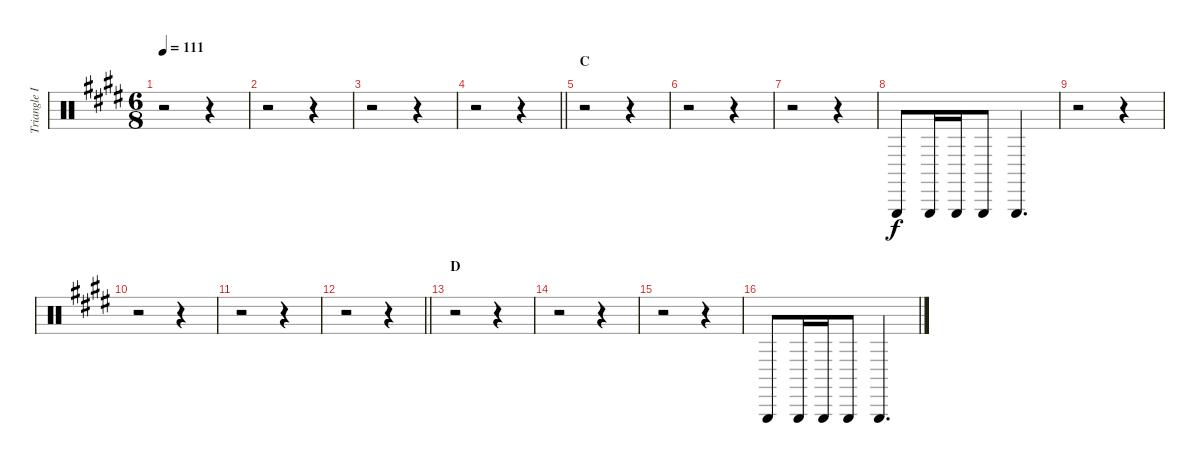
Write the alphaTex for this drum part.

\track ("Triangle I" "Triangle I") {instrument percussion}
\staff {score}
\articulation defaults
\ts (6 8)
\tempo 111
\clef neutral
\ks e
r.2{dy f} r.4 |
r.2 r.4 |
r.2 r.4 |
\barLineRight lightlight
r.2 r.4 |
\section ("" "C")
r.2 r.4 |
r.2 r.4 |
r.2 r.4 |
"Triangle (hit)".8 "Triangle (hit)".16 "Triangle (hit)".16 "Triangle (hit)".8 "Triangle (hit)".4{d} |
r.2 r.4 |
r.2 r.4 |
r.2 r.4 |
\barLineRight lightlight
r.2 r.4 |
\section ("" "D")
r.2 r.4 |
r.2 r.4 |
r.2 r.4 |
"Triangle (hit)".8 "Triangle (hit)".16 "Triangle (hit)".16 "Triangle (hit)".8 "Triangle (hit)".4{d}
